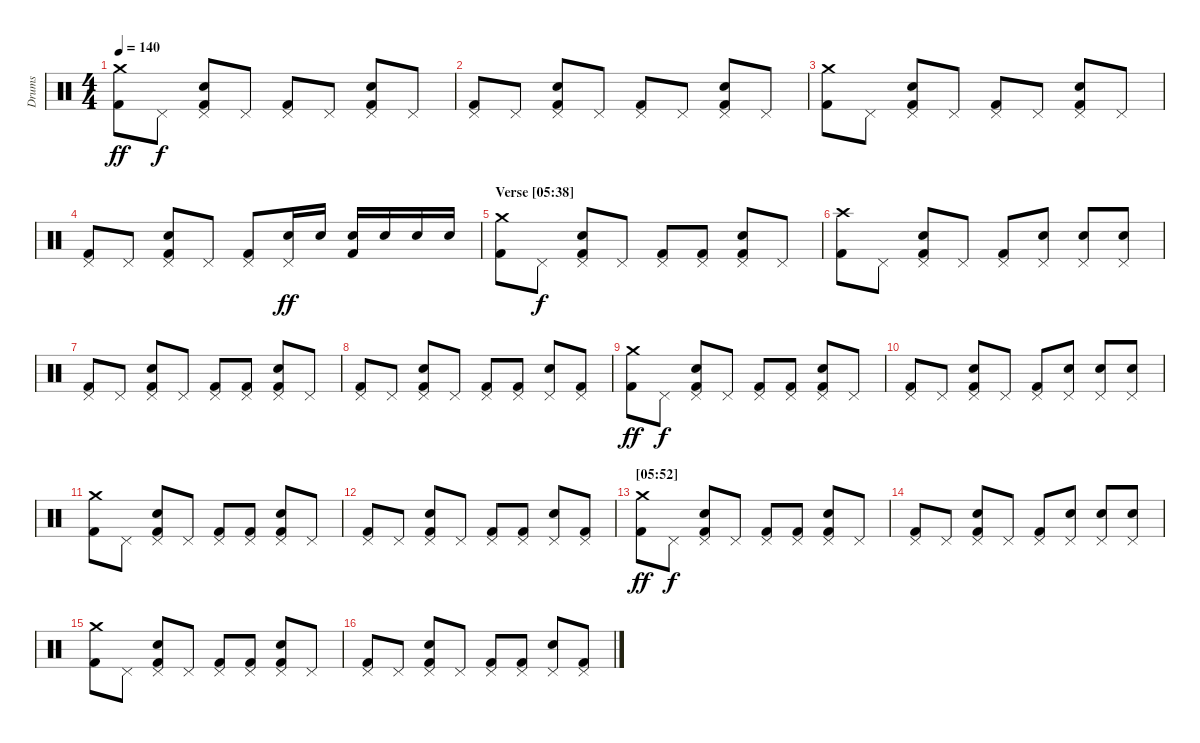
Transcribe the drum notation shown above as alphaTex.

\track ("Drums" "Drums") {instrument percussion}
\staff {score}
\articulation defaults
\ts (4 4)
\tempo 140
\clef neutral
\ks c
("Crash medium (hit)" "Kick (hit) 2").8{dy ff} "Pedal Hi-Hat (hit)".8{dy f} ("Pedal Hi-Hat (hit)" "Electric Snare (hit)" "Kick (hit) 2").8 "Pedal Hi-Hat (hit)".8 ("Pedal Hi-Hat (hit)" "Kick (hit) 2").8 "Pedal Hi-Hat (hit)".8 ("Pedal Hi-Hat (hit)" "Electric Snare (hit)" "Kick (hit) 2").8 "Pedal Hi-Hat (hit)".8 |
("Pedal Hi-Hat (hit)" "Kick (hit) 2").8 "Pedal Hi-Hat (hit)".8 ("Pedal Hi-Hat (hit)" "Electric Snare (hit)" "Kick (hit) 2").8 "Pedal Hi-Hat (hit)".8 ("Pedal Hi-Hat (hit)" "Kick (hit) 2").8 "Pedal Hi-Hat (hit)".8 ("Pedal Hi-Hat (hit)" "Electric Snare (hit)" "Kick (hit) 2").8 "Pedal Hi-Hat (hit)".8 |
("Crash medium (hit)" "Kick (hit) 2").8 "Pedal Hi-Hat (hit)".8 ("Pedal Hi-Hat (hit)" "Electric Snare (hit)" "Kick (hit) 2").8 "Pedal Hi-Hat (hit)".8 ("Pedal Hi-Hat (hit)" "Kick (hit) 2").8 "Pedal Hi-Hat (hit)".8 ("Pedal Hi-Hat (hit)" "Electric Snare (hit)" "Kick (hit) 2").8 "Pedal Hi-Hat (hit)".8 |
("Pedal Hi-Hat (hit)" "Kick (hit) 2").8 "Pedal Hi-Hat (hit)".8 ("Pedal Hi-Hat (hit)" "Electric Snare (hit)" "Kick (hit) 2").8 "Pedal Hi-Hat (hit)".8 ("Pedal Hi-Hat (hit)" "Kick (hit) 2").8 ("Pedal Hi-Hat (hit)" "Electric Snare (hit)").16{dy ff} "Electric Snare (hit)".16 ("Electric Snare (hit)" "Kick (hit) 2").16 "Electric Snare (hit)".16 "Electric Snare (hit)".16 "Electric Snare (hit)".16 |
\section ("" "Verse [05:38]")
("Crash medium (hit)" "Kick (hit) 2").8 "Pedal Hi-Hat (hit)".8{dy f} ("Pedal Hi-Hat (hit)" "Electric Snare (hit)" "Kick (hit) 2").8 "Pedal Hi-Hat (hit)".8 ("Pedal Hi-Hat (hit)" "Kick (hit) 2").8 ("Pedal Hi-Hat (hit)" "Kick (hit) 2").8 ("Pedal Hi-Hat (hit)" "Electric Snare (hit)" "Kick (hit) 2").8 "Pedal Hi-Hat (hit)".8 |
("Crash high (hit)" "Kick (hit) 2").8 "Pedal Hi-Hat (hit)".8 ("Pedal Hi-Hat (hit)" "Electric Snare (hit)" "Kick (hit) 2").8 "Pedal Hi-Hat (hit)".8 ("Pedal Hi-Hat (hit)" "Kick (hit) 2").8 ("Pedal Hi-Hat (hit)" "Electric Snare (hit)").8 ("Pedal Hi-Hat (hit)" "Electric Snare (hit)").8 ("Pedal Hi-Hat (hit)" "Electric Snare (hit)").8 |
("Pedal Hi-Hat (hit)" "Kick (hit) 2").8 "Pedal Hi-Hat (hit)".8 ("Pedal Hi-Hat (hit)" "Electric Snare (hit)" "Kick (hit) 2").8 "Pedal Hi-Hat (hit)".8 ("Pedal Hi-Hat (hit)" "Kick (hit) 2").8 ("Pedal Hi-Hat (hit)" "Kick (hit) 2").8 ("Pedal Hi-Hat (hit)" "Electric Snare (hit)" "Kick (hit) 2").8 "Pedal Hi-Hat (hit)".8 |
("Pedal Hi-Hat (hit)" "Kick (hit) 2").8 "Pedal Hi-Hat (hit)".8 ("Pedal Hi-Hat (hit)" "Electric Snare (hit)" "Kick (hit) 2").8 "Pedal Hi-Hat (hit)".8 ("Pedal Hi-Hat (hit)" "Kick (hit) 2").8 ("Pedal Hi-Hat (hit)" "Kick (hit) 2").8 ("Pedal Hi-Hat (hit)" "Electric Snare (hit)").8 ("Pedal Hi-Hat (hit)" "Kick (hit) 2").8 |
\section ("" "")
("Crash medium (hit)" "Kick (hit) 2").8{dy ff} "Pedal Hi-Hat (hit)".8{dy f} ("Pedal Hi-Hat (hit)" "Electric Snare (hit)" "Kick (hit) 2").8 "Pedal Hi-Hat (hit)".8 ("Pedal Hi-Hat (hit)" "Kick (hit) 2").8 ("Pedal Hi-Hat (hit)" "Kick (hit) 2").8 ("Pedal Hi-Hat (hit)" "Electric Snare (hit)" "Kick (hit) 2").8 "Pedal Hi-Hat (hit)".8 |
("Pedal Hi-Hat (hit)" "Kick (hit) 2").8 "Pedal Hi-Hat (hit)".8 ("Pedal Hi-Hat (hit)" "Electric Snare (hit)" "Kick (hit) 2").8 "Pedal Hi-Hat (hit)".8 ("Pedal Hi-Hat (hit)" "Kick (hit) 2").8 ("Pedal Hi-Hat (hit)" "Electric Snare (hit)").8 ("Pedal Hi-Hat (hit)" "Electric Snare (hit)").8 ("Pedal Hi-Hat (hit)" "Electric Snare (hit)").8 |
("Crash medium (hit)" "Kick (hit) 2").8 "Pedal Hi-Hat (hit)".8 ("Pedal Hi-Hat (hit)" "Electric Snare (hit)" "Kick (hit) 2").8 "Pedal Hi-Hat (hit)".8 ("Pedal Hi-Hat (hit)" "Kick (hit) 2").8 ("Pedal Hi-Hat (hit)" "Kick (hit) 2").8 ("Pedal Hi-Hat (hit)" "Electric Snare (hit)" "Kick (hit) 2").8 "Pedal Hi-Hat (hit)".8 |
("Pedal Hi-Hat (hit)" "Kick (hit) 2").8 "Pedal Hi-Hat (hit)".8 ("Pedal Hi-Hat (hit)" "Electric Snare (hit)" "Kick (hit) 2").8 "Pedal Hi-Hat (hit)".8 ("Pedal Hi-Hat (hit)" "Kick (hit) 2").8 ("Pedal Hi-Hat (hit)" "Kick (hit) 2").8 ("Pedal Hi-Hat (hit)" "Electric Snare (hit)").8 ("Pedal Hi-Hat (hit)" "Kick (hit) 2").8 |
\section ("" "[05:52]")
("Crash medium (hit)" "Kick (hit) 2").8{dy ff} "Pedal Hi-Hat (hit)".8{dy f} ("Pedal Hi-Hat (hit)" "Electric Snare (hit)" "Kick (hit) 2").8 "Pedal Hi-Hat (hit)".8 ("Pedal Hi-Hat (hit)" "Kick (hit) 2").8 ("Pedal Hi-Hat (hit)" "Kick (hit) 2").8 ("Pedal Hi-Hat (hit)" "Electric Snare (hit)" "Kick (hit) 2").8 "Pedal Hi-Hat (hit)".8 |
("Pedal Hi-Hat (hit)" "Kick (hit) 2").8 "Pedal Hi-Hat (hit)".8 ("Pedal Hi-Hat (hit)" "Electric Snare (hit)" "Kick (hit) 2").8 "Pedal Hi-Hat (hit)".8 ("Pedal Hi-Hat (hit)" "Kick (hit) 2").8 ("Pedal Hi-Hat (hit)" "Electric Snare (hit)").8 ("Pedal Hi-Hat (hit)" "Electric Snare (hit)").8 ("Pedal Hi-Hat (hit)" "Electric Snare (hit)").8 |
("Crash medium (hit)" "Kick (hit) 2").8 "Pedal Hi-Hat (hit)".8 ("Pedal Hi-Hat (hit)" "Electric Snare (hit)" "Kick (hit) 2").8 "Pedal Hi-Hat (hit)".8 ("Pedal Hi-Hat (hit)" "Kick (hit) 2").8 ("Pedal Hi-Hat (hit)" "Kick (hit) 2").8 ("Pedal Hi-Hat (hit)" "Electric Snare (hit)" "Kick (hit) 2").8 "Pedal Hi-Hat (hit)".8 |
("Pedal Hi-Hat (hit)" "Kick (hit) 2").8 "Pedal Hi-Hat (hit)".8 ("Pedal Hi-Hat (hit)" "Electric Snare (hit)" "Kick (hit) 2").8 "Pedal Hi-Hat (hit)".8 ("Pedal Hi-Hat (hit)" "Kick (hit) 2").8 ("Pedal Hi-Hat (hit)" "Kick (hit) 2").8 ("Pedal Hi-Hat (hit)" "Electric Snare (hit)").8 ("Pedal Hi-Hat (hit)" "Kick (hit) 2").8
